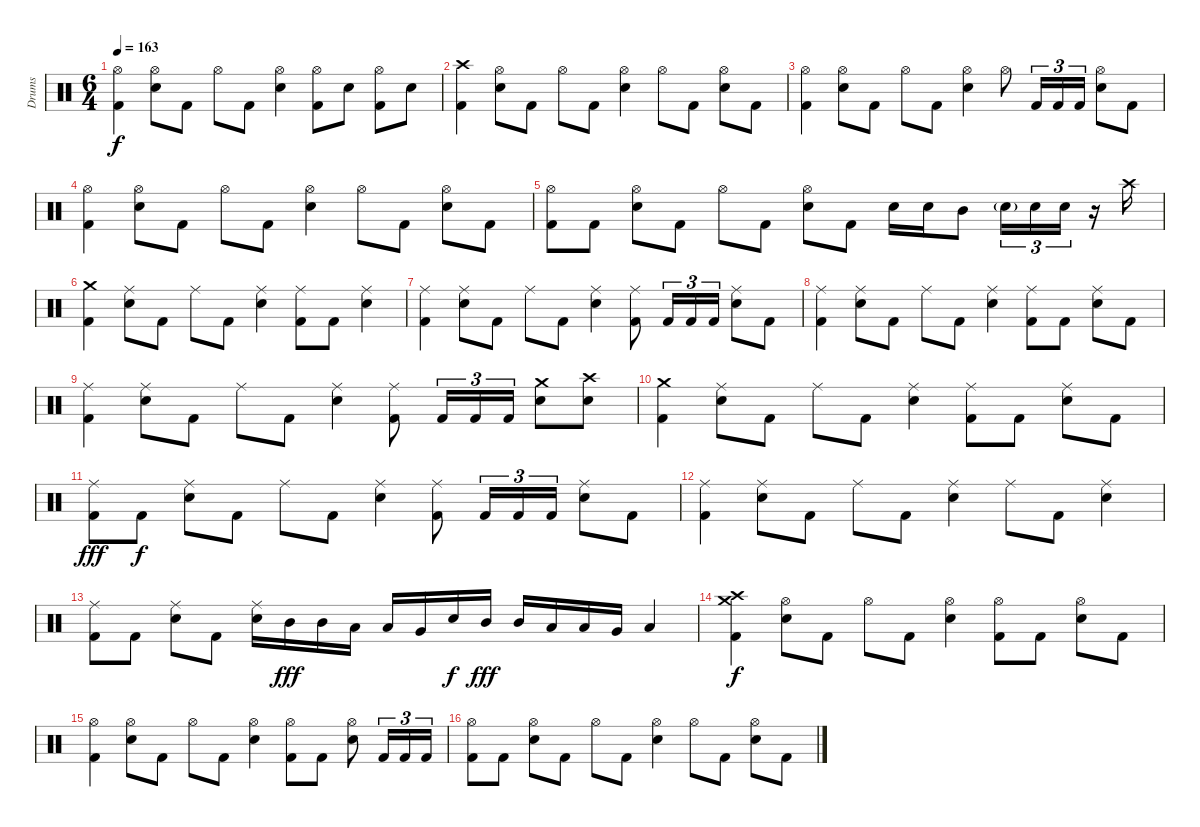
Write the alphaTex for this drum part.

\track ("Drums" "Drums") {instrument percussion}
\staff {score}
\articulation defaults
\ts (6 4)
\tempo 163
\clef neutral
\ks c
("Hi-Hat (open)" "Kick (hit) 2").4{dy f} ("Hi-Hat (open)" "Electric Snare (hit)").8 "Kick (hit) 2".8 "Hi-Hat (open)".8 "Kick (hit) 2".8 ("Hi-Hat (open)" "Electric Snare (hit)").4 ("Hi-Hat (open)" "Kick (hit) 2").8 "Electric Snare (hit)".8 ("Hi-Hat (open)" "Kick (hit) 2").8 "Electric Snare (hit)".8 |
("Crash high (hit)" "Kick (hit) 2").4 ("Hi-Hat (open)" "Electric Snare (hit)").8 "Kick (hit) 2".8 "Hi-Hat (open)".8 "Kick (hit) 2".8 ("Hi-Hat (open)" "Electric Snare (hit)").4 "Hi-Hat (open)".8 "Kick (hit) 2".8 ("Hi-Hat (open)" "Electric Snare (hit)").8 "Kick (hit) 2".8 |
("Hi-Hat (open)" "Kick (hit) 2").4 ("Hi-Hat (open)" "Electric Snare (hit)").8 "Kick (hit) 2".8 "Hi-Hat (open)".8 "Kick (hit) 2".8 ("Hi-Hat (open)" "Electric Snare (hit)").4 "Hi-Hat (open)".8 "Kick (hit) 2".16{tu (3 2)} "Kick (hit) 2".16{tu (3 2)} "Kick (hit) 2".16{tu (3 2)} ("Hi-Hat (open)" "Electric Snare (hit)").8 "Kick (hit) 2".8 |
("Hi-Hat (open)" "Kick (hit) 2").4 ("Hi-Hat (open)" "Electric Snare (hit)").8 "Kick (hit) 2".8 "Hi-Hat (open)".8 "Kick (hit) 2".8 ("Hi-Hat (open)" "Electric Snare (hit)").4 "Hi-Hat (open)".8 "Kick (hit) 2".8 ("Hi-Hat (open)" "Electric Snare (hit)").8 "Kick (hit) 2".8 |
("Hi-Hat (open)" "Kick (hit) 2").8 "Kick (hit) 2".8 ("Hi-Hat (open)" "Electric Snare (hit)").8 "Kick (hit) 2".8 "Hi-Hat (open)".8 "Kick (hit) 2".8 ("Hi-Hat (open)" "Electric Snare (hit)").8 "Kick (hit) 2".8 "Electric Snare (hit)".16 "Electric Snare (hit)".16 "Mid Tom (hit)".8 "Electric Snare (hit)"{g}.16{tu (3 2)} "Electric Snare (hit)".16{tu (3 2)} "Electric Snare (hit)".16{tu (3 2)} r.16 "Crash high (hit)".16 |
("Crash medium (hit)" "Kick (hit) 2").4 ("Ride (middle)" "Electric Snare (hit)").8 "Kick (hit) 2".8 "Ride (middle)".8 "Kick (hit) 2".8 ("Ride (middle)" "Electric Snare (hit)").4 ("Ride (middle)" "Kick (hit) 2").8 "Kick (hit) 2".8 ("Ride (middle)" "Electric Snare (hit)").4 |
("Ride (middle)" "Kick (hit) 2").4 ("Ride (middle)" "Electric Snare (hit)").8 "Kick (hit) 2".8 "Ride (middle)".8 "Kick (hit) 2".8 ("Ride (middle)" "Electric Snare (hit)").4 ("Ride (middle)" "Kick (hit) 2").8 "Kick (hit) 2".16{tu (3 2)} "Kick (hit) 2".16{tu (3 2)} "Kick (hit) 2".16{tu (3 2)} ("Ride (middle)" "Electric Snare (hit)").8 "Kick (hit) 2".8 |
("Ride (middle)" "Kick (hit) 2").4 ("Ride (middle)" "Electric Snare (hit)").8 "Kick (hit) 2".8 "Ride (middle)".8 "Kick (hit) 2".8 ("Ride (middle)" "Electric Snare (hit)").4 ("Ride (middle)" "Kick (hit) 2").8 "Kick (hit) 2".8 ("Ride (middle)" "Electric Snare (hit)").8 "Kick (hit) 2".8 |
("Ride (middle)" "Kick (hit) 2").4 ("Ride (middle)" "Electric Snare (hit)").8 "Kick (hit) 2".8 "Ride (middle)".8 "Kick (hit) 2".8 ("Ride (middle)" "Electric Snare (hit)").4 ("Ride (middle)" "Kick (hit) 2").8 "Kick (hit) 2".16{tu (3 2)} "Kick (hit) 2".16{tu (3 2)} "Kick (hit) 2".16{tu (3 2)} ("Crash medium (hit)" "Electric Snare (hit)").8 ("Crash high (hit)" "Electric Snare (hit)").8 |
("Crash medium (hit)" "Kick (hit) 2").4 ("Ride (middle)" "Electric Snare (hit)").8 "Kick (hit) 2".8 "Ride (middle)".8 "Kick (hit) 2".8 ("Ride (middle)" "Electric Snare (hit)").4 ("Ride (middle)" "Kick (hit) 2").8 "Kick (hit) 2".8 ("Ride (middle)" "Electric Snare (hit)").8 "Kick (hit) 2".8 |
("Ride (middle)" "Kick (hit) 2").8{dy fff} "Kick (hit) 2".8{dy f} ("Ride (middle)" "Electric Snare (hit)").8 "Kick (hit) 2".8 "Ride (middle)".8 "Kick (hit) 2".8 ("Ride (middle)" "Electric Snare (hit)").4 ("Ride (middle)" "Kick (hit) 2").8 "Kick (hit) 2".16{tu (3 2)} "Kick (hit) 2".16{tu (3 2)} "Kick (hit) 2".16{tu (3 2)} ("Ride (middle)" "Electric Snare (hit)").8 "Kick (hit) 2".8 |
("Ride (middle)" "Kick (hit) 2").4 ("Ride (middle)" "Electric Snare (hit)").8 "Kick (hit) 2".8 "Ride (middle)".8 "Kick (hit) 2".8 ("Ride (middle)" "Electric Snare (hit)").4 "Ride (middle)".8 "Kick (hit) 2".8 ("Ride (middle)" "Electric Snare (hit)").4 |
("Ride (middle)" "Kick (hit) 2").8 "Kick (hit) 2".8 ("Ride (middle)" "Electric Snare (hit)").8 "Kick (hit) 2".8 ("Ride (middle)" "Electric Snare (hit)").16 "Mid Tom (hit)".16{dy fff} "Mid Tom (hit)".16 "Low Tom (hit)".16 "Low Tom (hit)".16 "Very Low Tom (hit)".16 "Electric Snare (hit)".16{dy f} "Mid Tom (hit)".16{dy fff} "Mid Tom (hit)".16 "Low Tom (hit)".16 "Low Tom (hit)".16 "Very Low Tom (hit)".16 "Low Floor Tom (hit)".4 |
("Crash medium (hit)" "Crash high (hit)" "Kick (hit) 2").4{dy f} ("Hi-Hat (open)" "Electric Snare (hit)").8 "Kick (hit) 2".8 "Hi-Hat (open)".8 "Kick (hit) 2".8 ("Hi-Hat (open)" "Electric Snare (hit)").4 ("Hi-Hat (open)" "Kick (hit) 2").8 "Kick (hit) 2".8 ("Hi-Hat (open)" "Electric Snare (hit)").8 "Kick (hit) 2".8 |
("Hi-Hat (open)" "Kick (hit) 2").4 ("Hi-Hat (open)" "Electric Snare (hit)").8 "Kick (hit) 2".8 "Hi-Hat (open)".8 "Kick (hit) 2".8 ("Hi-Hat (open)" "Electric Snare (hit)").4 ("Hi-Hat (open)" "Kick (hit) 2").8 "Kick (hit) 2".8 ("Hi-Hat (open)" "Electric Snare (hit)").8 "Kick (hit) 2".16{tu (3 2)} "Kick (hit) 2".16{tu (3 2)} "Kick (hit) 2".16{tu (3 2)} |
("Hi-Hat (open)" "Kick (hit) 2").8 "Kick (hit) 2".8 ("Hi-Hat (open)" "Electric Snare (hit)").8 "Kick (hit) 2".8 "Hi-Hat (open)".8 "Kick (hit) 2".8 ("Hi-Hat (open)" "Electric Snare (hit)").4 "Hi-Hat (open)".8 "Kick (hit) 2".8 ("Hi-Hat (open)" "Electric Snare (hit)").8 "Kick (hit) 2".8
